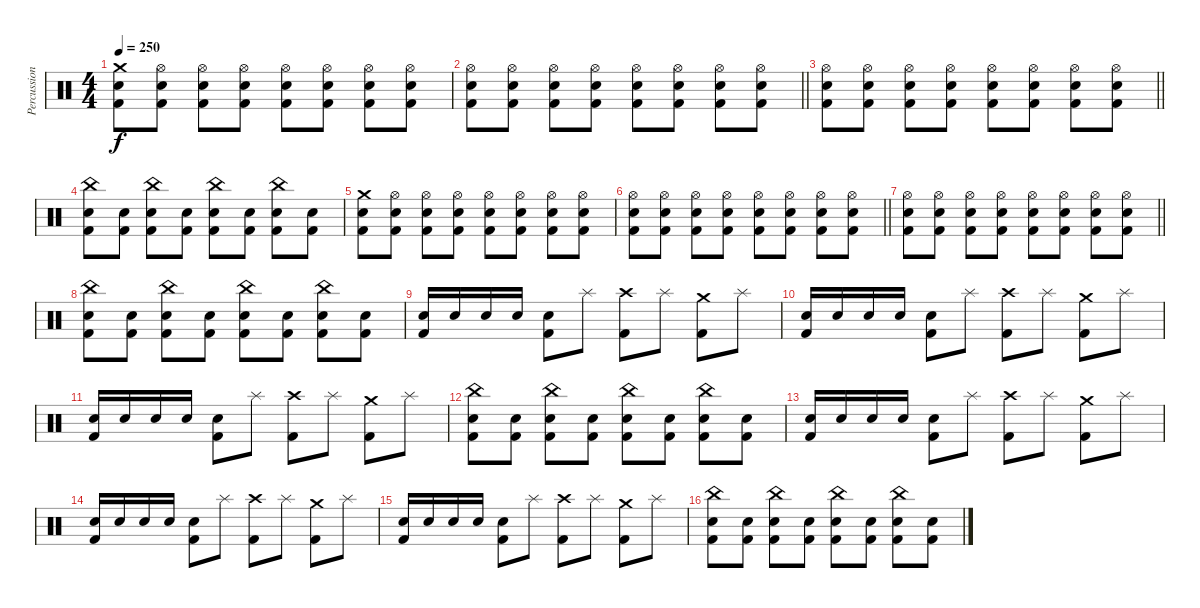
\track ("Percussions" "Percussion") {instrument percussion}
\staff {score}
\articulation defaults
\ts (4 4)
\tempo 250
\clef neutral
\ks c
("Crash medium (hit)" "Electric Snare (hit)" "Kick (hit) 2").8{dy f} ("Hi-Hat (open)" "Electric Snare (hit)" "Kick (hit) 2").8 ("Hi-Hat (open)" "Electric Snare (hit)" "Kick (hit) 2").8 ("Hi-Hat (open)" "Electric Snare (hit)" "Kick (hit) 2").8 ("Hi-Hat (open)" "Electric Snare (hit)" "Kick (hit) 2").8 ("Hi-Hat (open)" "Electric Snare (hit)" "Kick (hit) 2").8 ("Hi-Hat (open)" "Electric Snare (hit)" "Kick (hit) 2").8 ("Hi-Hat (open)" "Electric Snare (hit)" "Kick (hit) 2").8 |
\barLineRight lightlight
("Hi-Hat (open)" "Electric Snare (hit)" "Kick (hit) 2").8 ("Hi-Hat (open)" "Electric Snare (hit)" "Kick (hit) 2").8 ("Hi-Hat (open)" "Electric Snare (hit)" "Kick (hit) 2").8 ("Hi-Hat (open)" "Electric Snare (hit)" "Kick (hit) 2").8 ("Hi-Hat (open)" "Electric Snare (hit)" "Kick (hit) 2").8 ("Hi-Hat (open)" "Electric Snare (hit)" "Kick (hit) 2").8 ("Hi-Hat (open)" "Electric Snare (hit)" "Kick (hit) 2").8 ("Hi-Hat (open)" "Electric Snare (hit)" "Kick (hit) 2").8 |
\section ("" "")
\barLineRight lightlight
("Hi-Hat (open)" "Electric Snare (hit)" "Kick (hit) 2").8 ("Hi-Hat (open)" "Electric Snare (hit)" "Kick (hit) 2").8 ("Hi-Hat (open)" "Electric Snare (hit)" "Kick (hit) 2").8 ("Hi-Hat (open)" "Electric Snare (hit)" "Kick (hit) 2").8 ("Hi-Hat (open)" "Electric Snare (hit)" "Kick (hit) 2").8 ("Hi-Hat (open)" "Electric Snare (hit)" "Kick (hit) 2").8 ("Hi-Hat (open)" "Electric Snare (hit)" "Kick (hit) 2").8 ("Hi-Hat (open)" "Electric Snare (hit)" "Kick (hit) 2").8 |
("China (hit)" "Electric Snare (hit)" "Kick (hit) 2").8 ("Electric Snare (hit)" "Kick (hit) 2").8 ("China (hit)" "Electric Snare (hit)" "Kick (hit) 2").8 ("Electric Snare (hit)" "Kick (hit) 2").8 ("China (hit)" "Electric Snare (hit)" "Kick (hit) 2").8 ("Electric Snare (hit)" "Kick (hit) 2").8 ("China (hit)" "Electric Snare (hit)" "Kick (hit) 2").8 ("Electric Snare (hit)" "Kick (hit) 2").8 |
("Crash medium (hit)" "Electric Snare (hit)" "Kick (hit) 2").8 ("Hi-Hat (open)" "Electric Snare (hit)" "Kick (hit) 2").8 ("Hi-Hat (open)" "Electric Snare (hit)" "Kick (hit) 2").8 ("Hi-Hat (open)" "Electric Snare (hit)" "Kick (hit) 2").8 ("Hi-Hat (open)" "Electric Snare (hit)" "Kick (hit) 2").8 ("Hi-Hat (open)" "Electric Snare (hit)" "Kick (hit) 2").8 ("Hi-Hat (open)" "Electric Snare (hit)" "Kick (hit) 2").8 ("Hi-Hat (open)" "Electric Snare (hit)" "Kick (hit) 2").8 |
\barLineRight lightlight
("Hi-Hat (open)" "Electric Snare (hit)" "Kick (hit) 2").8 ("Hi-Hat (open)" "Electric Snare (hit)" "Kick (hit) 2").8 ("Hi-Hat (open)" "Electric Snare (hit)" "Kick (hit) 2").8 ("Hi-Hat (open)" "Electric Snare (hit)" "Kick (hit) 2").8 ("Hi-Hat (open)" "Electric Snare (hit)" "Kick (hit) 2").8 ("Hi-Hat (open)" "Electric Snare (hit)" "Kick (hit) 2").8 ("Hi-Hat (open)" "Electric Snare (hit)" "Kick (hit) 2").8 ("Hi-Hat (open)" "Electric Snare (hit)" "Kick (hit) 2").8 |
\barLineRight lightlight
("Hi-Hat (open)" "Electric Snare (hit)" "Kick (hit) 2").8 ("Hi-Hat (open)" "Electric Snare (hit)" "Kick (hit) 2").8 ("Hi-Hat (open)" "Electric Snare (hit)" "Kick (hit) 2").8 ("Hi-Hat (open)" "Electric Snare (hit)" "Kick (hit) 2").8 ("Hi-Hat (open)" "Electric Snare (hit)" "Kick (hit) 2").8 ("Hi-Hat (open)" "Electric Snare (hit)" "Kick (hit) 2").8 ("Hi-Hat (open)" "Electric Snare (hit)" "Kick (hit) 2").8 ("Hi-Hat (open)" "Electric Snare (hit)" "Kick (hit) 2").8 |
("China (hit)" "Electric Snare (hit)" "Kick (hit) 2").8 ("Electric Snare (hit)" "Kick (hit) 2").8 ("China (hit)" "Electric Snare (hit)" "Kick (hit) 2").8 ("Electric Snare (hit)" "Kick (hit) 2").8 ("China (hit)" "Electric Snare (hit)" "Kick (hit) 2").8 ("Electric Snare (hit)" "Kick (hit) 2").8 ("China (hit)" "Electric Snare (hit)" "Kick (hit) 2").8 ("Electric Snare (hit)" "Kick (hit) 2").8 |
("Electric Snare (hit)" "Kick (hit) 2").16 "Electric Snare (hit)".16 "Electric Snare (hit)".16 "Electric Snare (hit)".16 ("Electric Snare (hit)" "Kick (hit) 2").8 "Splash (hit)".8 ("Crash high (hit)" "Kick (hit) 2").8 "Splash (hit)".8 ("Crash medium (hit)" "Kick (hit) 2").8 "Splash (hit)".8 |
("Electric Snare (hit)" "Kick (hit) 2").16 "Electric Snare (hit)".16 "Electric Snare (hit)".16 "Electric Snare (hit)".16 ("Electric Snare (hit)" "Kick (hit) 2").8 "Splash (hit)".8 ("Crash high (hit)" "Kick (hit) 2").8 "Splash (hit)".8 ("Crash medium (hit)" "Kick (hit) 2").8 "Splash (hit)".8 |
("Electric Snare (hit)" "Kick (hit) 2").16 "Electric Snare (hit)".16 "Electric Snare (hit)".16 "Electric Snare (hit)".16 ("Electric Snare (hit)" "Kick (hit) 2").8 "Splash (hit)".8 ("Crash high (hit)" "Kick (hit) 2").8 "Splash (hit)".8 ("Crash medium (hit)" "Kick (hit) 2").8 "Splash (hit)".8 |
("China (hit)" "Electric Snare (hit)" "Kick (hit) 2").8 ("Electric Snare (hit)" "Kick (hit) 2").8 ("China (hit)" "Electric Snare (hit)" "Kick (hit) 2").8 ("Electric Snare (hit)" "Kick (hit) 2").8 ("China (hit)" "Electric Snare (hit)" "Kick (hit) 2").8 ("Electric Snare (hit)" "Kick (hit) 2").8 ("China (hit)" "Electric Snare (hit)" "Kick (hit) 2").8 ("Electric Snare (hit)" "Kick (hit) 2").8 |
("Electric Snare (hit)" "Kick (hit) 2").16 "Electric Snare (hit)".16 "Electric Snare (hit)".16 "Electric Snare (hit)".16 ("Electric Snare (hit)" "Kick (hit) 2").8 "Splash (hit)".8 ("Crash high (hit)" "Kick (hit) 2").8 "Splash (hit)".8 ("Crash medium (hit)" "Kick (hit) 2").8 "Splash (hit)".8 |
("Electric Snare (hit)" "Kick (hit) 2").16 "Electric Snare (hit)".16 "Electric Snare (hit)".16 "Electric Snare (hit)".16 ("Electric Snare (hit)" "Kick (hit) 2").8 "Splash (hit)".8 ("Crash high (hit)" "Kick (hit) 2").8 "Splash (hit)".8 ("Crash medium (hit)" "Kick (hit) 2").8 "Splash (hit)".8 |
("Electric Snare (hit)" "Kick (hit) 2").16 "Electric Snare (hit)".16 "Electric Snare (hit)".16 "Electric Snare (hit)".16 ("Electric Snare (hit)" "Kick (hit) 2").8 "Splash (hit)".8 ("Crash high (hit)" "Kick (hit) 2").8 "Splash (hit)".8 ("Crash medium (hit)" "Kick (hit) 2").8 "Splash (hit)".8 |
("China (hit)" "Electric Snare (hit)" "Kick (hit) 2").8 ("Electric Snare (hit)" "Kick (hit) 2").8 ("China (hit)" "Electric Snare (hit)" "Kick (hit) 2").8 ("Electric Snare (hit)" "Kick (hit) 2").8 ("China (hit)" "Electric Snare (hit)" "Kick (hit) 2").8 ("Electric Snare (hit)" "Kick (hit) 2").8 ("China (hit)" "Electric Snare (hit)" "Kick (hit) 2").8 ("Electric Snare (hit)" "Kick (hit) 2").8
